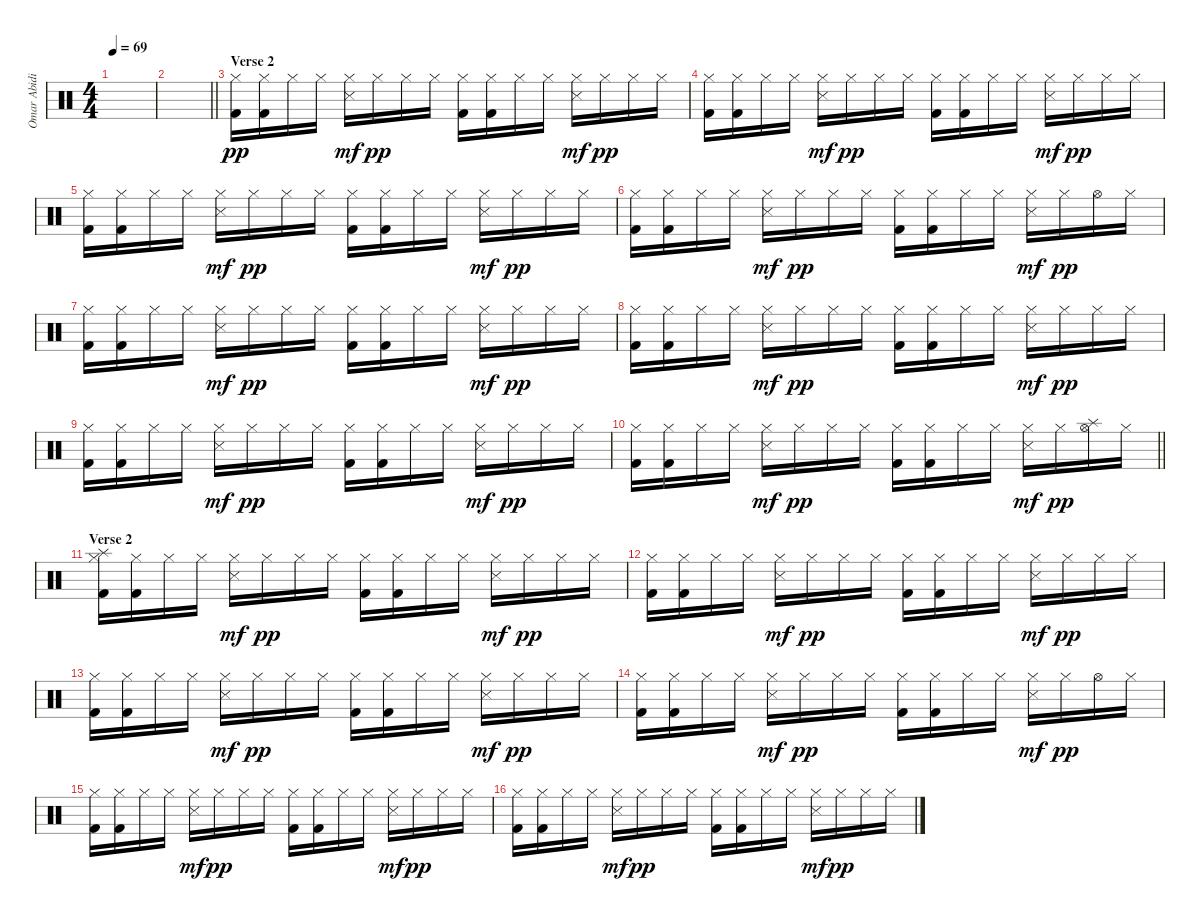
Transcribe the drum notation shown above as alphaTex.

\track ("Omar Abidi" "Omar Abidi") {instrument percussion}
\staff {score}
\articulation defaults
\ts (4 4)
\tempo 69
\clef neutral
\ks c
|
\barLineRight lightlight
|
\section ("" "Verse 2")
("Hi-Hat (closed)" "Kick (hit) 2").16{dy pp} ("Hi-Hat (closed)" "Kick (hit) 2").16 "Hi-Hat (closed)".16 "Hi-Hat (closed)".16 ("Hi-Hat (closed)" "Snare (side stick) 3").16{dy mf} "Hi-Hat (closed)".16{dy pp} "Hi-Hat (closed)".16 "Hi-Hat (closed)".16 ("Hi-Hat (closed)" "Kick (hit) 2").16 ("Hi-Hat (closed)" "Kick (hit) 2").16 "Hi-Hat (closed)".16 "Hi-Hat (closed)".16 ("Hi-Hat (closed)" "Snare (side stick) 3").16{dy mf} "Hi-Hat (closed)".16{dy pp} "Hi-Hat (closed)".16 "Hi-Hat (closed)".16 |
("Hi-Hat (closed)" "Kick (hit) 2").16 ("Hi-Hat (closed)" "Kick (hit) 2").16 "Hi-Hat (closed)".16 "Hi-Hat (closed)".16 ("Hi-Hat (closed)" "Snare (side stick) 3").16{dy mf} "Hi-Hat (closed)".16{dy pp} "Hi-Hat (closed)".16 "Hi-Hat (closed)".16 ("Hi-Hat (closed)" "Kick (hit) 2").16 ("Hi-Hat (closed)" "Kick (hit) 2").16 "Hi-Hat (closed)".16 "Hi-Hat (closed)".16 ("Hi-Hat (closed)" "Snare (side stick) 3").16{dy mf} "Hi-Hat (closed)".16{dy pp} "Hi-Hat (closed)".16 "Hi-Hat (closed)".16 |
("Hi-Hat (closed)" "Kick (hit) 2").16 ("Hi-Hat (closed)" "Kick (hit) 2").16 "Hi-Hat (closed)".16 "Hi-Hat (closed)".16 ("Hi-Hat (closed)" "Snare (side stick) 3").16{dy mf} "Hi-Hat (closed)".16{dy pp} "Hi-Hat (closed)".16 "Hi-Hat (closed)".16 ("Hi-Hat (closed)" "Kick (hit) 2").16 ("Hi-Hat (closed)" "Kick (hit) 2").16 "Hi-Hat (closed)".16 "Hi-Hat (closed)".16 ("Hi-Hat (closed)" "Snare (side stick) 3").16{dy mf} "Hi-Hat (closed)".16{dy pp} "Hi-Hat (closed)".16 "Hi-Hat (closed)".16 |
("Hi-Hat (closed)" "Kick (hit) 2").16 ("Hi-Hat (closed)" "Kick (hit) 2").16 "Hi-Hat (closed)".16 "Hi-Hat (closed)".16 ("Hi-Hat (closed)" "Snare (side stick) 3").16{dy mf} "Hi-Hat (closed)".16{dy pp} "Hi-Hat (closed)".16 "Hi-Hat (closed)".16 ("Hi-Hat (closed)" "Kick (hit) 2").16 ("Hi-Hat (closed)" "Kick (hit) 2").16 "Hi-Hat (closed)".16 "Hi-Hat (closed)".16 ("Hi-Hat (closed)" "Snare (side stick) 3").16{dy mf} "Hi-Hat (closed)".16{dy pp} "Hi-Hat (open)".16 "Hi-Hat (closed)".16 |
("Hi-Hat (closed)" "Kick (hit) 2").16 ("Hi-Hat (closed)" "Kick (hit) 2").16 "Hi-Hat (closed)".16 "Hi-Hat (closed)".16 ("Hi-Hat (closed)" "Snare (side stick) 3").16{dy mf} "Hi-Hat (closed)".16{dy pp} "Hi-Hat (closed)".16 "Hi-Hat (closed)".16 ("Hi-Hat (closed)" "Kick (hit) 2").16 ("Hi-Hat (closed)" "Kick (hit) 2").16 "Hi-Hat (closed)".16 "Hi-Hat (closed)".16 ("Hi-Hat (closed)" "Snare (side stick) 3").16{dy mf} "Hi-Hat (closed)".16{dy pp} "Hi-Hat (closed)".16 "Hi-Hat (closed)".16 |
("Hi-Hat (closed)" "Kick (hit) 2").16 ("Hi-Hat (closed)" "Kick (hit) 2").16 "Hi-Hat (closed)".16 "Hi-Hat (closed)".16 ("Hi-Hat (closed)" "Snare (side stick) 3").16{dy mf} "Hi-Hat (closed)".16{dy pp} "Hi-Hat (closed)".16 "Hi-Hat (closed)".16 ("Hi-Hat (closed)" "Kick (hit) 2").16 ("Hi-Hat (closed)" "Kick (hit) 2").16 "Hi-Hat (closed)".16 "Hi-Hat (closed)".16 ("Hi-Hat (closed)" "Snare (side stick) 3").16{dy mf} "Hi-Hat (closed)".16{dy pp} "Hi-Hat (closed)".16 "Hi-Hat (closed)".16 |
("Hi-Hat (closed)" "Kick (hit) 2").16 ("Hi-Hat (closed)" "Kick (hit) 2").16 "Hi-Hat (closed)".16 "Hi-Hat (closed)".16 ("Hi-Hat (closed)" "Snare (side stick) 3").16{dy mf} "Hi-Hat (closed)".16{dy pp} "Hi-Hat (closed)".16 "Hi-Hat (closed)".16 ("Hi-Hat (closed)" "Kick (hit) 2").16 ("Hi-Hat (closed)" "Kick (hit) 2").16 "Hi-Hat (closed)".16 "Hi-Hat (closed)".16 ("Hi-Hat (closed)" "Snare (side stick) 3").16{dy mf} "Hi-Hat (closed)".16{dy pp} "Hi-Hat (closed)".16 "Hi-Hat (closed)".16 |
\barLineRight lightlight
("Hi-Hat (closed)" "Kick (hit) 2").16 ("Hi-Hat (closed)" "Kick (hit) 2").16 "Hi-Hat (closed)".16 "Hi-Hat (closed)".16 ("Hi-Hat (closed)" "Snare (side stick) 3").16{dy mf} "Hi-Hat (closed)".16{dy pp} "Hi-Hat (closed)".16 "Hi-Hat (closed)".16 ("Hi-Hat (closed)" "Kick (hit) 2").16 ("Hi-Hat (closed)" "Kick (hit) 2").16 "Hi-Hat (closed)".16 "Hi-Hat (closed)".16 ("Hi-Hat (closed)" "Snare (side stick) 3").16{dy mf} "Hi-Hat (closed)".16{dy pp} ("Splash (hit)" "Hi-Hat (open)").16 "Hi-Hat (closed)".16 |
\section ("" "Verse 2")
("Splash (hit)" "Hi-Hat (closed)" "Kick (hit) 2").16 ("Hi-Hat (closed)" "Kick (hit) 2").16 "Hi-Hat (closed)".16 "Hi-Hat (closed)".16 ("Hi-Hat (closed)" "Snare (side stick) 3").16{dy mf} "Hi-Hat (closed)".16{dy pp} "Hi-Hat (closed)".16 "Hi-Hat (closed)".16 ("Hi-Hat (closed)" "Kick (hit) 2").16 ("Hi-Hat (closed)" "Kick (hit) 2").16 "Hi-Hat (closed)".16 "Hi-Hat (closed)".16 ("Hi-Hat (closed)" "Snare (side stick) 3").16{dy mf} "Hi-Hat (closed)".16{dy pp} "Hi-Hat (closed)".16 "Hi-Hat (closed)".16 |
("Hi-Hat (closed)" "Kick (hit) 2").16 ("Hi-Hat (closed)" "Kick (hit) 2").16 "Hi-Hat (closed)".16 "Hi-Hat (closed)".16 ("Hi-Hat (closed)" "Snare (side stick) 3").16{dy mf} "Hi-Hat (closed)".16{dy pp} "Hi-Hat (closed)".16 "Hi-Hat (closed)".16 ("Hi-Hat (closed)" "Kick (hit) 2").16 ("Hi-Hat (closed)" "Kick (hit) 2").16 "Hi-Hat (closed)".16 "Hi-Hat (closed)".16 ("Hi-Hat (closed)" "Snare (side stick) 3").16{dy mf} "Hi-Hat (closed)".16{dy pp} "Hi-Hat (closed)".16 "Hi-Hat (closed)".16 |
("Hi-Hat (closed)" "Kick (hit) 2").16 ("Hi-Hat (closed)" "Kick (hit) 2").16 "Hi-Hat (closed)".16 "Hi-Hat (closed)".16 ("Hi-Hat (closed)" "Snare (side stick) 3").16{dy mf} "Hi-Hat (closed)".16{dy pp} "Hi-Hat (closed)".16 "Hi-Hat (closed)".16 ("Hi-Hat (closed)" "Kick (hit) 2").16 ("Hi-Hat (closed)" "Kick (hit) 2").16 "Hi-Hat (closed)".16 "Hi-Hat (closed)".16 ("Hi-Hat (closed)" "Snare (side stick) 3").16{dy mf} "Hi-Hat (closed)".16{dy pp} "Hi-Hat (closed)".16 "Hi-Hat (closed)".16 |
("Hi-Hat (closed)" "Kick (hit) 2").16 ("Hi-Hat (closed)" "Kick (hit) 2").16 "Hi-Hat (closed)".16 "Hi-Hat (closed)".16 ("Hi-Hat (closed)" "Snare (side stick) 3").16{dy mf} "Hi-Hat (closed)".16{dy pp} "Hi-Hat (closed)".16 "Hi-Hat (closed)".16 ("Hi-Hat (closed)" "Kick (hit) 2").16 ("Hi-Hat (closed)" "Kick (hit) 2").16 "Hi-Hat (closed)".16 "Hi-Hat (closed)".16 ("Hi-Hat (closed)" "Snare (side stick) 3").16{dy mf} "Hi-Hat (closed)".16{dy pp} "Hi-Hat (open)".16 "Hi-Hat (closed)".16 |
("Hi-Hat (closed)" "Kick (hit) 2").16 ("Hi-Hat (closed)" "Kick (hit) 2").16 "Hi-Hat (closed)".16 "Hi-Hat (closed)".16 ("Hi-Hat (closed)" "Snare (side stick) 3").16{dy mf} "Hi-Hat (closed)".16{dy pp} "Hi-Hat (closed)".16 "Hi-Hat (closed)".16 ("Hi-Hat (closed)" "Kick (hit) 2").16 ("Hi-Hat (closed)" "Kick (hit) 2").16 "Hi-Hat (closed)".16 "Hi-Hat (closed)".16 ("Hi-Hat (closed)" "Snare (side stick) 3").16{dy mf} "Hi-Hat (closed)".16{dy pp} "Hi-Hat (closed)".16 "Hi-Hat (closed)".16 |
("Hi-Hat (closed)" "Kick (hit) 2").16 ("Hi-Hat (closed)" "Kick (hit) 2").16 "Hi-Hat (closed)".16 "Hi-Hat (closed)".16 ("Hi-Hat (closed)" "Snare (side stick) 3").16{dy mf} "Hi-Hat (closed)".16{dy pp} "Hi-Hat (closed)".16 "Hi-Hat (closed)".16 ("Hi-Hat (closed)" "Kick (hit) 2").16 ("Hi-Hat (closed)" "Kick (hit) 2").16 "Hi-Hat (closed)".16 "Hi-Hat (closed)".16 ("Hi-Hat (closed)" "Snare (side stick) 3").16{dy mf} "Hi-Hat (closed)".16{dy pp} "Hi-Hat (closed)".16 "Hi-Hat (closed)".16
